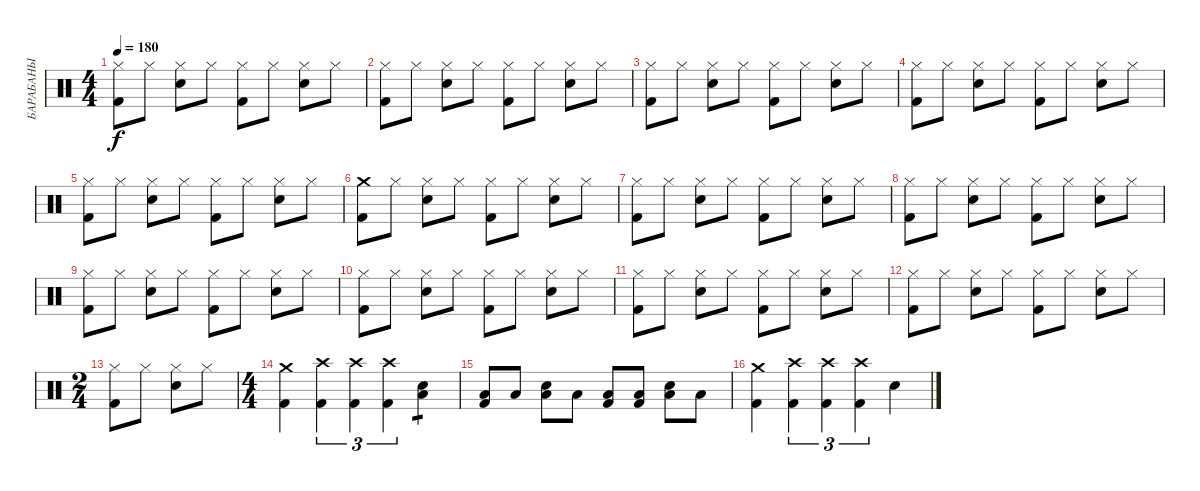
\track ("БАРАБАНЫ" "БАРАБАНЫ") {instrument percussion}
\staff {score}
\articulation defaults
\ts (4 4)
\tempo 180
\clef neutral
\ks c
("Hi-Hat (closed)" "Kick (hit) 2").8{dy f} "Hi-Hat (closed)".8 ("Hi-Hat (closed)" "Electric Snare (hit)").8 "Hi-Hat (closed)".8 ("Hi-Hat (closed)" "Kick (hit) 2").8 "Hi-Hat (closed)".8 ("Hi-Hat (closed)" "Electric Snare (hit)").8 "Hi-Hat (closed)".8 |
("Hi-Hat (closed)" "Kick (hit) 2").8 "Hi-Hat (closed)".8 ("Hi-Hat (closed)" "Electric Snare (hit)").8 "Hi-Hat (closed)".8 ("Hi-Hat (closed)" "Kick (hit) 2").8 "Hi-Hat (closed)".8 ("Hi-Hat (closed)" "Electric Snare (hit)").8 "Hi-Hat (closed)".8 |
("Hi-Hat (closed)" "Kick (hit) 2").8 "Hi-Hat (closed)".8 ("Hi-Hat (closed)" "Electric Snare (hit)").8 "Hi-Hat (closed)".8 ("Hi-Hat (closed)" "Kick (hit) 2").8 "Hi-Hat (closed)".8 ("Hi-Hat (closed)" "Electric Snare (hit)").8 "Hi-Hat (closed)".8 |
("Hi-Hat (closed)" "Kick (hit) 2").8 "Hi-Hat (closed)".8 ("Hi-Hat (closed)" "Electric Snare (hit)").8 "Hi-Hat (closed)".8 ("Hi-Hat (closed)" "Kick (hit) 2").8 "Hi-Hat (closed)".8 ("Hi-Hat (closed)" "Electric Snare (hit)").8 "Hi-Hat (closed)".8 |
("Hi-Hat (closed)" "Kick (hit) 2").8 "Hi-Hat (closed)".8 ("Hi-Hat (closed)" "Electric Snare (hit)").8 "Hi-Hat (closed)".8 ("Hi-Hat (closed)" "Kick (hit) 2").8 "Hi-Hat (closed)".8 ("Hi-Hat (closed)" "Electric Snare (hit)").8 "Hi-Hat (closed)".8 |
("Crash medium (hit)" "Kick (hit) 2").8 "Hi-Hat (closed)".8 ("Hi-Hat (closed)" "Electric Snare (hit)").8 "Hi-Hat (closed)".8 ("Hi-Hat (closed)" "Kick (hit) 2").8 "Hi-Hat (closed)".8 ("Hi-Hat (closed)" "Electric Snare (hit)").8 "Hi-Hat (closed)".8 |
("Hi-Hat (closed)" "Kick (hit) 2").8 "Hi-Hat (closed)".8 ("Hi-Hat (closed)" "Electric Snare (hit)").8 "Hi-Hat (closed)".8 ("Hi-Hat (closed)" "Kick (hit) 2").8 "Hi-Hat (closed)".8 ("Hi-Hat (closed)" "Electric Snare (hit)").8 "Hi-Hat (closed)".8 |
("Hi-Hat (closed)" "Kick (hit) 2").8 "Hi-Hat (closed)".8 ("Hi-Hat (closed)" "Electric Snare (hit)").8 "Hi-Hat (closed)".8 ("Hi-Hat (closed)" "Kick (hit) 2").8 "Hi-Hat (closed)".8 ("Hi-Hat (closed)" "Electric Snare (hit)").8 "Hi-Hat (closed)".8 |
("Hi-Hat (closed)" "Kick (hit) 2").8 "Hi-Hat (closed)".8 ("Hi-Hat (closed)" "Electric Snare (hit)").8 "Hi-Hat (closed)".8 ("Hi-Hat (closed)" "Kick (hit) 2").8 "Hi-Hat (closed)".8 ("Hi-Hat (closed)" "Electric Snare (hit)").8 "Hi-Hat (closed)".8 |
("Hi-Hat (closed)" "Kick (hit) 2").8 "Hi-Hat (closed)".8 ("Hi-Hat (closed)" "Electric Snare (hit)").8 "Hi-Hat (closed)".8 ("Hi-Hat (closed)" "Kick (hit) 2").8 "Hi-Hat (closed)".8 ("Hi-Hat (closed)" "Electric Snare (hit)").8 "Hi-Hat (closed)".8 |
("Hi-Hat (closed)" "Kick (hit) 2").8 "Hi-Hat (closed)".8 ("Hi-Hat (closed)" "Electric Snare (hit)").8 "Hi-Hat (closed)".8 ("Hi-Hat (closed)" "Kick (hit) 2").8 "Hi-Hat (closed)".8 ("Hi-Hat (closed)" "Electric Snare (hit)").8 "Hi-Hat (closed)".8 |
("Hi-Hat (closed)" "Kick (hit) 2").8 "Hi-Hat (closed)".8 ("Hi-Hat (closed)" "Electric Snare (hit)").8 "Hi-Hat (closed)".8 ("Hi-Hat (closed)" "Kick (hit) 2").8 "Hi-Hat (closed)".8 ("Hi-Hat (closed)" "Electric Snare (hit)").8 "Hi-Hat (closed)".8 |
\ts (2 4)
("Hi-Hat (closed)" "Kick (hit) 2").8 "Hi-Hat (closed)".8 ("Hi-Hat (closed)" "Electric Snare (hit)").8 "Hi-Hat (closed)".8 |
\ts (4 4)
("Kick (hit) 2" "Crash medium (hit)").4 ("Kick (hit) 2" "Crash high (hit)").4{tu (3 2)} ("Kick (hit) 2" "Crash high (hit)").4{tu (3 2)} ("Kick (hit) 2" "Crash high (hit)").4{tu (3 2)} ("Electric Snare (hit)" "Low Floor Tom (hit)").4{tp 1} |
("Kick (hit) 2" "Low Floor Tom (hit)").8 "Low Floor Tom (hit)".8 ("Electric Snare (hit)" "Low Floor Tom (hit)").8 "Low Floor Tom (hit)".8 ("Low Floor Tom (hit)" "Kick (hit) 2").8 ("Low Floor Tom (hit)" "Kick (hit) 2").8 ("Low Floor Tom (hit)" "Electric Snare (hit)").8 "Low Floor Tom (hit)".8 |
("Kick (hit) 2" "Crash medium (hit)").4 ("Kick (hit) 2" "Crash high (hit)").4{tu (3 2)} ("Kick (hit) 2" "Crash high (hit)").4{tu (3 2)} ("Kick (hit) 2" "Crash high (hit)").4{tu (3 2)} "Electric Snare (hit)".4
